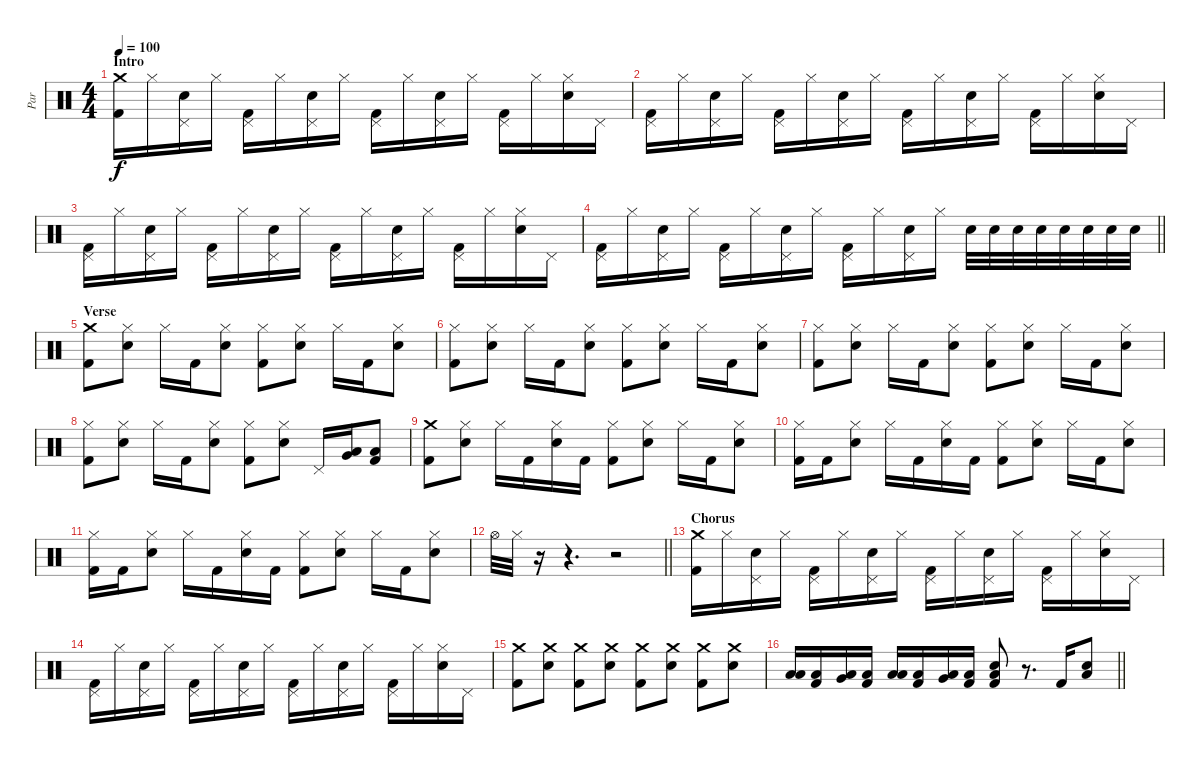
\track ("Par" "Par") {instrument percussion}
\staff {score}
\articulation defaults
\ts (4 4)
\section ("" "Intro")
\tempo 100
\clef neutral
\ks c
("Crash medium (hit)" "Kick (hit) 2").16{dy f} "Hi-Hat (closed)".16 ("Pedal Hi-Hat (hit)" "Snare (hit) 2").16 "Hi-Hat (closed)".16 ("Pedal Hi-Hat (hit)" "Kick (hit) 2").16 "Hi-Hat (closed)".16 ("Pedal Hi-Hat (hit)" "Snare (hit) 2").16 "Hi-Hat (closed)".16 ("Pedal Hi-Hat (hit)" "Kick (hit) 2").16 "Hi-Hat (closed)".16 ("Pedal Hi-Hat (hit)" "Snare (hit) 2").16 "Hi-Hat (closed)".16 ("Pedal Hi-Hat (hit)" "Kick (hit) 2").16 "Hi-Hat (closed)".16 ("Hi-Hat (closed)" "Snare (hit) 2").16 "Pedal Hi-Hat (hit)".16 |
("Pedal Hi-Hat (hit)" "Kick (hit) 2").16 "Hi-Hat (closed)".16 ("Pedal Hi-Hat (hit)" "Snare (hit) 2").16 "Hi-Hat (closed)".16 ("Pedal Hi-Hat (hit)" "Kick (hit) 2").16 "Hi-Hat (closed)".16 ("Pedal Hi-Hat (hit)" "Snare (hit) 2").16 "Hi-Hat (closed)".16 ("Pedal Hi-Hat (hit)" "Kick (hit) 2").16 "Hi-Hat (closed)".16 ("Pedal Hi-Hat (hit)" "Snare (hit) 2").16 "Hi-Hat (closed)".16 ("Pedal Hi-Hat (hit)" "Kick (hit) 2").16 "Hi-Hat (closed)".16 ("Hi-Hat (closed)" "Snare (hit) 2").16 "Pedal Hi-Hat (hit)".16 |
("Pedal Hi-Hat (hit)" "Kick (hit) 2").16 "Hi-Hat (closed)".16 ("Pedal Hi-Hat (hit)" "Snare (hit) 2").16 "Hi-Hat (closed)".16 ("Pedal Hi-Hat (hit)" "Kick (hit) 2").16 "Hi-Hat (closed)".16 ("Pedal Hi-Hat (hit)" "Snare (hit) 2").16 "Hi-Hat (closed)".16 ("Pedal Hi-Hat (hit)" "Kick (hit) 2").16 "Hi-Hat (closed)".16 ("Pedal Hi-Hat (hit)" "Snare (hit) 2").16 "Hi-Hat (closed)".16 ("Pedal Hi-Hat (hit)" "Kick (hit) 2").16 "Hi-Hat (closed)".16 ("Hi-Hat (closed)" "Snare (hit) 2").16 "Pedal Hi-Hat (hit)".16 |
\barLineRight lightlight
("Pedal Hi-Hat (hit)" "Kick (hit) 2").16 "Hi-Hat (closed)".16 ("Pedal Hi-Hat (hit)" "Snare (hit) 2").16 "Hi-Hat (closed)".16 ("Pedal Hi-Hat (hit)" "Kick (hit) 2").16 "Hi-Hat (closed)".16 ("Pedal Hi-Hat (hit)" "Snare (hit) 2").16 "Hi-Hat (closed)".16 ("Pedal Hi-Hat (hit)" "Kick (hit) 2").16 "Hi-Hat (closed)".16 ("Pedal Hi-Hat (hit)" "Snare (hit) 2").16 "Hi-Hat (closed)".16 "Snare (hit) 2".32 "Snare (hit) 2".32 "Snare (hit) 2".32 "Snare (hit) 2".32 "Snare (hit) 2".32 "Snare (hit) 2".32 "Snare (hit) 2".32 "Snare (hit) 2".32 |
\section ("" "Verse")
("Crash medium (hit)" "Kick (hit) 2").8 ("Hi-Hat (closed)" "Snare (hit) 2").8 "Hi-Hat (closed)".16 "Kick (hit) 2".16 ("Hi-Hat (closed)" "Snare (hit) 2").8 ("Hi-Hat (closed)" "Kick (hit) 2").8 ("Hi-Hat (closed)" "Snare (hit) 2").8 "Hi-Hat (closed)".16 "Kick (hit) 2".16 ("Hi-Hat (closed)" "Snare (hit) 2").8 |
("Hi-Hat (closed)" "Kick (hit) 2").8 ("Hi-Hat (closed)" "Snare (hit) 2").8 "Hi-Hat (closed)".16 "Kick (hit) 2".16 ("Hi-Hat (closed)" "Snare (hit) 2").8 ("Hi-Hat (closed)" "Kick (hit) 2").8 ("Hi-Hat (closed)" "Snare (hit) 2").8 "Hi-Hat (closed)".16 "Kick (hit) 2".16 ("Hi-Hat (closed)" "Snare (hit) 2").8 |
("Hi-Hat (closed)" "Kick (hit) 2").8 ("Hi-Hat (closed)" "Snare (hit) 2").8 "Hi-Hat (closed)".16 "Kick (hit) 2".16 ("Hi-Hat (closed)" "Snare (hit) 2").8 ("Hi-Hat (closed)" "Kick (hit) 2").8 ("Hi-Hat (closed)" "Snare (hit) 2").8 "Hi-Hat (closed)".16 "Kick (hit) 2".16 ("Hi-Hat (closed)" "Snare (hit) 2").8 |
("Hi-Hat (closed)" "Kick (hit) 2").8 ("Hi-Hat (closed)" "Snare (hit) 2").8 "Hi-Hat (closed)".16 "Kick (hit) 2".16 ("Hi-Hat (closed)" "Snare (hit) 2").8 ("Hi-Hat (closed)" "Kick (hit) 2").8 ("Hi-Hat (closed)" "Snare (hit) 2").8 "Pedal Hi-Hat (hit)".16 ("Very Low Tom (hit)" "Low Floor Tom (hit)").16 ("Low Floor Tom (hit)" "Kick (hit) 2").8 |
("Crash medium (hit)" "Kick (hit) 2").8 ("Hi-Hat (closed)" "Snare (hit) 2").8 "Hi-Hat (closed)".16 "Kick (hit) 2".16 ("Hi-Hat (closed)" "Snare (hit) 2").16 "Kick (hit) 2".16 ("Hi-Hat (closed)" "Kick (hit) 2").8 ("Hi-Hat (closed)" "Snare (hit) 2").8 "Hi-Hat (closed)".16 "Kick (hit) 2".16 ("Hi-Hat (closed)" "Snare (hit) 2").8 |
("Hi-Hat (closed)" "Kick (hit) 2").16 "Kick (hit) 2".16 ("Hi-Hat (closed)" "Snare (hit) 2").8 "Hi-Hat (closed)".16 "Kick (hit) 2".16 ("Hi-Hat (closed)" "Snare (hit) 2").16 "Kick (hit) 2".16 ("Hi-Hat (closed)" "Kick (hit) 2").8 ("Hi-Hat (closed)" "Snare (hit) 2").8 "Hi-Hat (closed)".16 "Kick (hit) 2".16 ("Hi-Hat (closed)" "Snare (hit) 2").8 |
("Hi-Hat (closed)" "Kick (hit) 2").16 "Kick (hit) 2".16 ("Hi-Hat (closed)" "Snare (hit) 2").8 "Hi-Hat (closed)".16 "Kick (hit) 2".16 ("Hi-Hat (closed)" "Snare (hit) 2").16 "Kick (hit) 2".16 ("Hi-Hat (closed)" "Kick (hit) 2").8 ("Hi-Hat (closed)" "Snare (hit) 2").8 "Hi-Hat (closed)".16 "Kick (hit) 2".16 ("Hi-Hat (closed)" "Snare (hit) 2").8 |
\barLineRight lightlight "Hi-Hat (open)".32 "Hi-Hat (closed)".32
r.16 r.4{d} r.2 |
\section ("" "Chorus")
("Crash medium (hit)" "Kick (hit) 2").16 "Hi-Hat (closed)".16 ("Pedal Hi-Hat (hit)" "Snare (hit) 2").16 "Hi-Hat (closed)".16 ("Pedal Hi-Hat (hit)" "Kick (hit) 2").16 "Hi-Hat (closed)".16 ("Pedal Hi-Hat (hit)" "Snare (hit) 2").16 "Hi-Hat (closed)".16 ("Pedal Hi-Hat (hit)" "Kick (hit) 2").16 "Hi-Hat (closed)".16 ("Pedal Hi-Hat (hit)" "Snare (hit) 2").16 "Hi-Hat (closed)".16 ("Pedal Hi-Hat (hit)" "Kick (hit) 2").16 "Hi-Hat (closed)".16 ("Hi-Hat (closed)" "Snare (hit) 2").16 "Pedal Hi-Hat (hit)".16 |
("Pedal Hi-Hat (hit)" "Kick (hit) 2").16 "Hi-Hat (closed)".16 ("Pedal Hi-Hat (hit)" "Snare (hit) 2").16 "Hi-Hat (closed)".16 ("Pedal Hi-Hat (hit)" "Kick (hit) 2").16 "Hi-Hat (closed)".16 ("Pedal Hi-Hat (hit)" "Snare (hit) 2").16 "Hi-Hat (closed)".16 ("Pedal Hi-Hat (hit)" "Kick (hit) 2").16 "Hi-Hat (closed)".16 ("Pedal Hi-Hat (hit)" "Snare (hit) 2").16 "Hi-Hat (closed)".16 ("Pedal Hi-Hat (hit)" "Kick (hit) 2").16 "Hi-Hat (closed)".16 ("Hi-Hat (closed)" "Snare (hit) 2").16 "Pedal Hi-Hat (hit)".16 |
("Crash medium (hit)" "Kick (hit) 2").8 ("Crash medium (hit)" "Snare (hit) 2").8 ("Crash medium (hit)" "Kick (hit) 2").8 ("Crash medium (hit)" "Snare (hit) 2").8 ("Crash medium (hit)" "Kick (hit) 2").8 ("Crash medium (hit)" "Snare (hit) 2").8 ("Crash medium (hit)" "Kick (hit) 2").8 ("Crash medium (hit)" "Snare (hit) 2").8 |
\barLineRight lightlight
("Low Floor Tom (hit)" "Low Tom (hit)").16 ("Low Floor Tom (hit)" "Kick (hit) 2").16 ("Low Floor Tom (hit)" "Very Low Tom (hit)").16 ("Low Floor Tom (hit)" "Kick (hit) 2").16 ("Low Floor Tom (hit)" "Low Floor Tom (hit)").16 ("Low Floor Tom (hit)" "Kick (hit) 2").16 ("Low Floor Tom (hit)" "Very Low Tom (hit)").16 ("Low Floor Tom (hit)" "Kick (hit) 2").16 ("Low Floor Tom (hit)" "Snare (hit) 2" "Kick (hit) 2").8 r.8{d} "Kick (hit) 2".16 ("Snare (hit) 2" "Low Floor Tom (hit)").8
